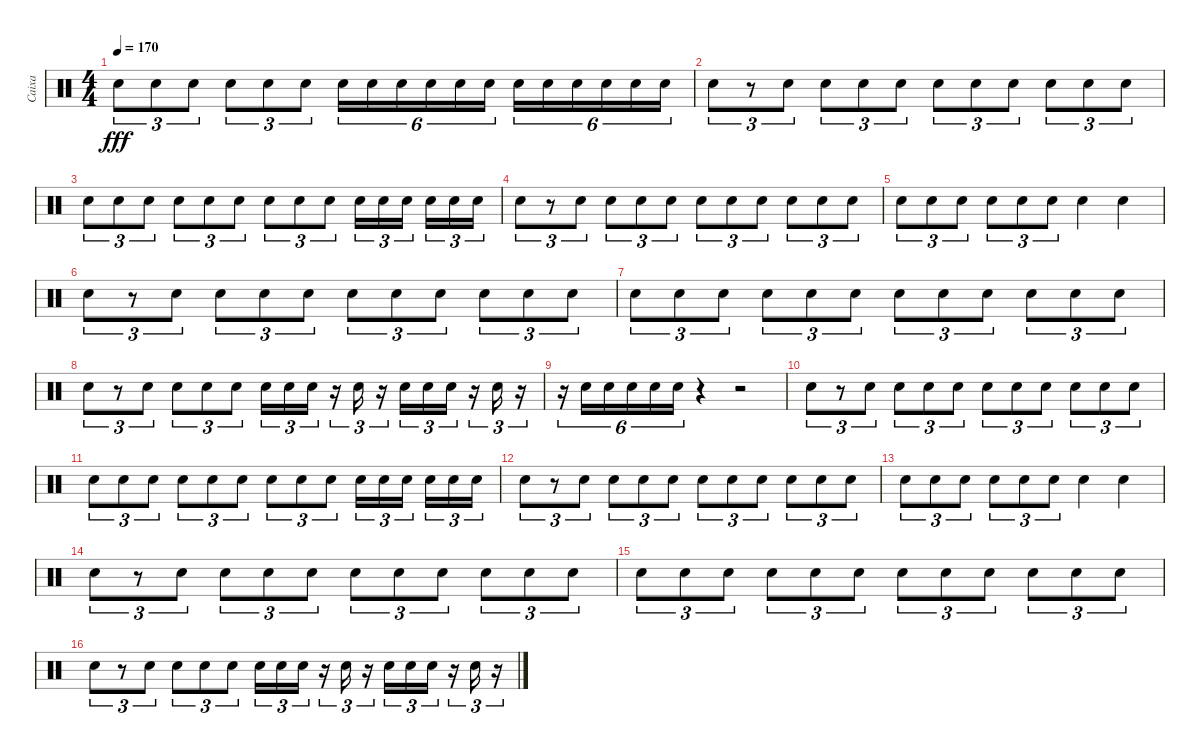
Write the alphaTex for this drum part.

\track ("Caixa" "Caixa") {instrument percussion}
\staff {score}
\articulation defaults
\ts (4 4)
\tempo 170
\clef neutral
\ks c "Electric Snare (hit)".8{tu (3 2) dy fff} "Electric Snare (hit)".8{tu (3 2)} "Electric Snare (hit)".8{tu (3 2)} "Electric Snare (hit)".8{tu (3 2)} "Electric Snare (hit)".8{tu (3 2)} "Electric Snare (hit)".8{tu (3 2)} "Electric Snare (hit)".16{tu (6 4)} "Electric Snare (hit)".16{tu (6 4)} "Electric Snare (hit)".16{tu (6 4)} "Electric Snare (hit)".16{tu (6 4)} "Electric Snare (hit)".16{tu (6 4)} "Electric Snare (hit)".16{tu (6 4)} "Electric Snare (hit)".16{tu (6 4)} "Electric Snare (hit)".16{tu (6 4)} "Electric Snare (hit)".16{tu (6 4)} "Electric Snare (hit)".16{tu (6 4)} "Electric Snare (hit)".16{tu (6 4)} "Electric Snare (hit)".16{tu (6 4)}
|
"Electric Snare (hit)".8{tu (3 2)} r.8{tu (3 2)} "Electric Snare (hit)".8{tu (3 2)} "Electric Snare (hit)".8{tu (3 2)} "Electric Snare (hit)".8{tu (3 2)} "Electric Snare (hit)".8{tu (3 2)} "Electric Snare (hit)".8{tu (3 2)} "Electric Snare (hit)".8{tu (3 2)} "Electric Snare (hit)".8{tu (3 2)} "Electric Snare (hit)".8{tu (3 2)} "Electric Snare (hit)".8{tu (3 2)} "Electric Snare (hit)".8{tu (3 2)} |
"Electric Snare (hit)".8{tu (3 2)} "Electric Snare (hit)".8{tu (3 2)} "Electric Snare (hit)".8{tu (3 2)} "Electric Snare (hit)".8{tu (3 2)} "Electric Snare (hit)".8{tu (3 2)} "Electric Snare (hit)".8{tu (3 2)} "Electric Snare (hit)".8{tu (3 2)} "Electric Snare (hit)".8{tu (3 2)} "Electric Snare (hit)".8{tu (3 2)} "Electric Snare (hit)".16{tu (3 2)} "Electric Snare (hit)".16{tu (3 2)} "Electric Snare (hit)".16{tu (3 2)} "Electric Snare (hit)".16{tu (3 2)} "Electric Snare (hit)".16{tu (3 2)} "Electric Snare (hit)".16{tu (3 2)} |
"Electric Snare (hit)".8{tu (3 2)} r.8{tu (3 2)} "Electric Snare (hit)".8{tu (3 2)} "Electric Snare (hit)".8{tu (3 2)} "Electric Snare (hit)".8{tu (3 2)} "Electric Snare (hit)".8{tu (3 2)} "Electric Snare (hit)".8{tu (3 2)} "Electric Snare (hit)".8{tu (3 2)} "Electric Snare (hit)".8{tu (3 2)} "Electric Snare (hit)".8{tu (3 2)} "Electric Snare (hit)".8{tu (3 2)} "Electric Snare (hit)".8{tu (3 2)} |
"Electric Snare (hit)".8{tu (3 2)} "Electric Snare (hit)".8{tu (3 2)} "Electric Snare (hit)".8{tu (3 2)} "Electric Snare (hit)".8{tu (3 2)} "Electric Snare (hit)".8{tu (3 2)} "Electric Snare (hit)".8{tu (3 2)} "Electric Snare (hit)".4 "Electric Snare (hit)".4 |
"Electric Snare (hit)".8{tu (3 2)} r.8{tu (3 2)} "Electric Snare (hit)".8{tu (3 2)} "Electric Snare (hit)".8{tu (3 2)} "Electric Snare (hit)".8{tu (3 2)} "Electric Snare (hit)".8{tu (3 2)} "Electric Snare (hit)".8{tu (3 2)} "Electric Snare (hit)".8{tu (3 2)} "Electric Snare (hit)".8{tu (3 2)} "Electric Snare (hit)".8{tu (3 2)} "Electric Snare (hit)".8{tu (3 2)} "Electric Snare (hit)".8{tu (3 2)} |
"Electric Snare (hit)".8{tu (3 2)} "Electric Snare (hit)".8{tu (3 2)} "Electric Snare (hit)".8{tu (3 2)} "Electric Snare (hit)".8{tu (3 2)} "Electric Snare (hit)".8{tu (3 2)} "Electric Snare (hit)".8{tu (3 2)} "Electric Snare (hit)".8{tu (3 2)} "Electric Snare (hit)".8{tu (3 2)} "Electric Snare (hit)".8{tu (3 2)} "Electric Snare (hit)".8{tu (3 2)} "Electric Snare (hit)".8{tu (3 2)} "Electric Snare (hit)".8{tu (3 2)} |
"Electric Snare (hit)".8{tu (3 2)} r.8{tu (3 2)} "Electric Snare (hit)".8{tu (3 2)} "Electric Snare (hit)".8{tu (3 2)} "Electric Snare (hit)".8{tu (3 2)} "Electric Snare (hit)".8{tu (3 2)} "Electric Snare (hit)".16{tu (3 2)} "Electric Snare (hit)".16{tu (3 2)} "Electric Snare (hit)".16{tu (3 2)} r.16{tu (3 2)} "Electric Snare (hit)".16{tu (3 2)} r.16{tu (3 2)} "Electric Snare (hit)".16{tu (3 2)} "Electric Snare (hit)".16{tu (3 2)} "Electric Snare (hit)".16{tu (3 2)} r.16{tu (3 2)} "Electric Snare (hit)".16{tu (3 2)} r.16{tu (3 2)} |
r.16{tu (6 4)} "Electric Snare (hit)".16{tu (6 4)} "Electric Snare (hit)".16{tu (6 4)} "Electric Snare (hit)".16{tu (6 4)} "Electric Snare (hit)".16{tu (6 4)} "Electric Snare (hit)".16{tu (6 4)} r.4 r.2 |
"Electric Snare (hit)".8{tu (3 2)} r.8{tu (3 2)} "Electric Snare (hit)".8{tu (3 2)} "Electric Snare (hit)".8{tu (3 2)} "Electric Snare (hit)".8{tu (3 2)} "Electric Snare (hit)".8{tu (3 2)} "Electric Snare (hit)".8{tu (3 2)} "Electric Snare (hit)".8{tu (3 2)} "Electric Snare (hit)".8{tu (3 2)} "Electric Snare (hit)".8{tu (3 2)} "Electric Snare (hit)".8{tu (3 2)} "Electric Snare (hit)".8{tu (3 2)} |
"Electric Snare (hit)".8{tu (3 2)} "Electric Snare (hit)".8{tu (3 2)} "Electric Snare (hit)".8{tu (3 2)} "Electric Snare (hit)".8{tu (3 2)} "Electric Snare (hit)".8{tu (3 2)} "Electric Snare (hit)".8{tu (3 2)} "Electric Snare (hit)".8{tu (3 2)} "Electric Snare (hit)".8{tu (3 2)} "Electric Snare (hit)".8{tu (3 2)} "Electric Snare (hit)".16{tu (3 2)} "Electric Snare (hit)".16{tu (3 2)} "Electric Snare (hit)".16{tu (3 2)} "Electric Snare (hit)".16{tu (3 2)} "Electric Snare (hit)".16{tu (3 2)} "Electric Snare (hit)".16{tu (3 2)} |
"Electric Snare (hit)".8{tu (3 2)} r.8{tu (3 2)} "Electric Snare (hit)".8{tu (3 2)} "Electric Snare (hit)".8{tu (3 2)} "Electric Snare (hit)".8{tu (3 2)} "Electric Snare (hit)".8{tu (3 2)} "Electric Snare (hit)".8{tu (3 2)} "Electric Snare (hit)".8{tu (3 2)} "Electric Snare (hit)".8{tu (3 2)} "Electric Snare (hit)".8{tu (3 2)} "Electric Snare (hit)".8{tu (3 2)} "Electric Snare (hit)".8{tu (3 2)} |
"Electric Snare (hit)".8{tu (3 2)} "Electric Snare (hit)".8{tu (3 2)} "Electric Snare (hit)".8{tu (3 2)} "Electric Snare (hit)".8{tu (3 2)} "Electric Snare (hit)".8{tu (3 2)} "Electric Snare (hit)".8{tu (3 2)} "Electric Snare (hit)".4 "Electric Snare (hit)".4 |
"Electric Snare (hit)".8{tu (3 2)} r.8{tu (3 2)} "Electric Snare (hit)".8{tu (3 2)} "Electric Snare (hit)".8{tu (3 2)} "Electric Snare (hit)".8{tu (3 2)} "Electric Snare (hit)".8{tu (3 2)} "Electric Snare (hit)".8{tu (3 2)} "Electric Snare (hit)".8{tu (3 2)} "Electric Snare (hit)".8{tu (3 2)} "Electric Snare (hit)".8{tu (3 2)} "Electric Snare (hit)".8{tu (3 2)} "Electric Snare (hit)".8{tu (3 2)} |
"Electric Snare (hit)".8{tu (3 2)} "Electric Snare (hit)".8{tu (3 2)} "Electric Snare (hit)".8{tu (3 2)} "Electric Snare (hit)".8{tu (3 2)} "Electric Snare (hit)".8{tu (3 2)} "Electric Snare (hit)".8{tu (3 2)} "Electric Snare (hit)".8{tu (3 2)} "Electric Snare (hit)".8{tu (3 2)} "Electric Snare (hit)".8{tu (3 2)} "Electric Snare (hit)".8{tu (3 2)} "Electric Snare (hit)".8{tu (3 2)} "Electric Snare (hit)".8{tu (3 2)} |
"Electric Snare (hit)".8{tu (3 2)} r.8{tu (3 2)} "Electric Snare (hit)".8{tu (3 2)} "Electric Snare (hit)".8{tu (3 2)} "Electric Snare (hit)".8{tu (3 2)} "Electric Snare (hit)".8{tu (3 2)} "Electric Snare (hit)".16{tu (3 2)} "Electric Snare (hit)".16{tu (3 2)} "Electric Snare (hit)".16{tu (3 2)} r.16{tu (3 2)} "Electric Snare (hit)".16{tu (3 2)} r.16{tu (3 2)} "Electric Snare (hit)".16{tu (3 2)} "Electric Snare (hit)".16{tu (3 2)} "Electric Snare (hit)".16{tu (3 2)} r.16{tu (3 2)} "Electric Snare (hit)".16{tu (3 2)} r.16{tu (3 2)}
